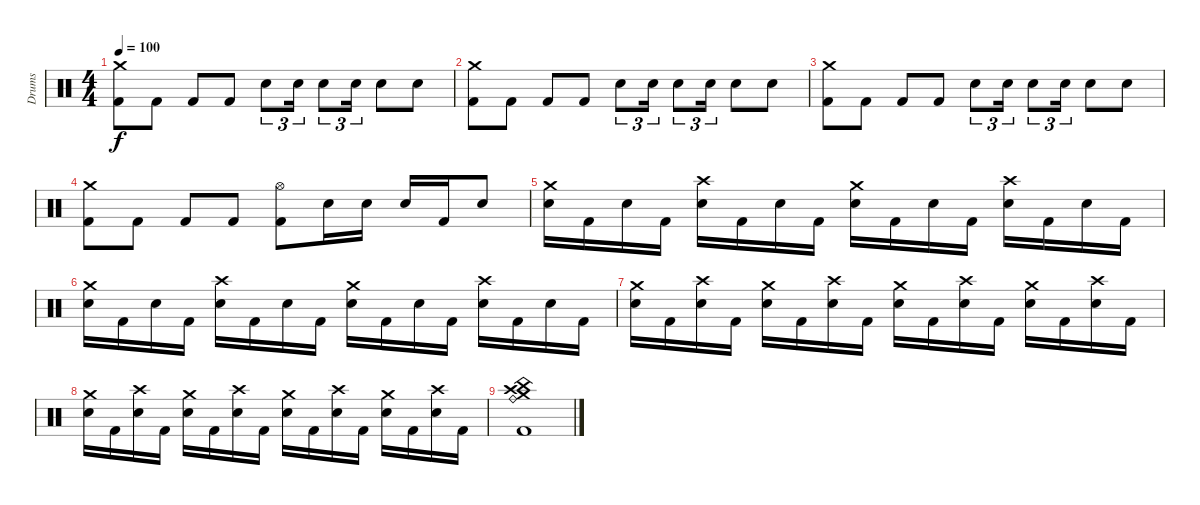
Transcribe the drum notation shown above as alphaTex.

\track ("Drums" "Drums") {instrument percussion}
\staff {score}
\articulation defaults
\ts (4 4)
\tempo 100
\clef neutral
\ks c
("Crash medium (hit)" "Kick (hit) 2").8{dy f} "Kick (hit) 2".8 "Kick (hit) 2".8 "Kick (hit) 2".8 "Snare (hit) 2".8{tu (3 2)} "Snare (hit) 2".16{tu (3 2)} "Snare (hit) 2".8{tu (3 2)} "Snare (hit) 2".16{tu (3 2)} "Snare (hit) 2".8 "Snare (hit) 2".8 |
("Crash medium (hit)" "Kick (hit) 2").8 "Kick (hit) 2".8 "Kick (hit) 2".8 "Kick (hit) 2".8 "Snare (hit) 2".8{tu (3 2)} "Snare (hit) 2".16{tu (3 2)} "Snare (hit) 2".8{tu (3 2)} "Snare (hit) 2".16{tu (3 2)} "Snare (hit) 2".8 "Snare (hit) 2".8 |
("Crash medium (hit)" "Kick (hit) 2").8 "Kick (hit) 2".8 "Kick (hit) 2".8 "Kick (hit) 2".8 "Snare (hit) 2".8{tu (3 2)} "Snare (hit) 2".16{tu (3 2)} "Snare (hit) 2".8{tu (3 2)} "Snare (hit) 2".16{tu (3 2)} "Snare (hit) 2".8 "Snare (hit) 2".8 |
("Crash medium (hit)" "Kick (hit) 2").8 "Kick (hit) 2".8 "Kick (hit) 2".8 "Kick (hit) 2".8 ("Hi-Hat (open)" "Kick (hit) 2").8 "Snare (hit) 2".16 "Snare (hit) 2".16 "Snare (hit) 2".16 "Kick (hit) 2".16 "Snare (hit) 2".8 |
("Crash medium (hit)" "Snare (hit) 2").16 "Kick (hit) 2".16 "Snare (hit) 2".16 "Kick (hit) 2".16 ("Crash high (hit)" "Snare (hit) 2").16 "Kick (hit) 2".16 "Snare (hit) 2".16 "Kick (hit) 2".16 ("Crash medium (hit)" "Snare (hit) 2").16 "Kick (hit) 2".16 "Snare (hit) 2".16 "Kick (hit) 2".16 ("Crash high (hit)" "Snare (hit) 2").16 "Kick (hit) 2".16 "Snare (hit) 2".16 "Kick (hit) 2".16 |
("Crash medium (hit)" "Snare (hit) 2").16 "Kick (hit) 2".16 "Snare (hit) 2".16 "Kick (hit) 2".16 ("Crash high (hit)" "Snare (hit) 2").16 "Kick (hit) 2".16 "Snare (hit) 2".16 "Kick (hit) 2".16 ("Crash medium (hit)" "Snare (hit) 2").16 "Kick (hit) 2".16 "Snare (hit) 2".16 "Kick (hit) 2".16 ("Crash high (hit)" "Snare (hit) 2").16 "Kick (hit) 2".16 "Snare (hit) 2".16 "Kick (hit) 2".16 |
("Crash medium (hit)" "Snare (hit) 2").16 "Kick (hit) 2".16 ("Crash high (hit)" "Snare (hit) 2").16 "Kick (hit) 2".16 ("Crash medium (hit)" "Snare (hit) 2").16 "Kick (hit) 2".16 ("Crash high (hit)" "Snare (hit) 2").16 "Kick (hit) 2".16 ("Crash medium (hit)" "Snare (hit) 2").16 "Kick (hit) 2".16 ("Crash high (hit)" "Snare (hit) 2").16 "Kick (hit) 2".16 ("Crash medium (hit)" "Snare (hit) 2").16 "Kick (hit) 2".16 ("Crash high (hit)" "Snare (hit) 2").16 "Kick (hit) 2".16 |
("Crash medium (hit)" "Snare (hit) 2").16 "Kick (hit) 2".16 ("Crash high (hit)" "Snare (hit) 2").16 "Kick (hit) 2".16 ("Crash medium (hit)" "Snare (hit) 2").16 "Kick (hit) 2".16 ("Crash high (hit)" "Snare (hit) 2").16 "Kick (hit) 2".16 ("Crash medium (hit)" "Snare (hit) 2").16 "Kick (hit) 2".16 ("Crash high (hit)" "Snare (hit) 2").16 "Kick (hit) 2".16 ("Crash medium (hit)" "Snare (hit) 2").16 "Kick (hit) 2".16 ("Crash high (hit)" "Snare (hit) 2").16 "Kick (hit) 2".16 |
("Crash medium (hit)" "Crash high (hit)" "Ride (bell)" "China (hit)" "Kick (hit) 2").1
